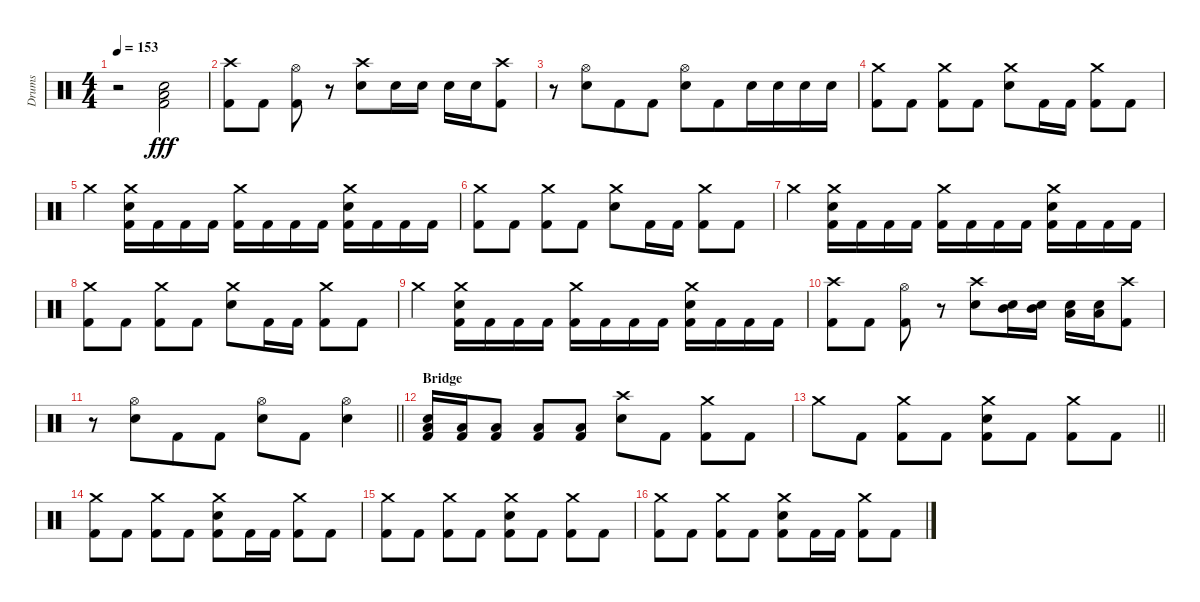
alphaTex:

\track ("Drums" "Drums") {instrument percussion}
\staff {score}
\articulation defaults
\ts (4 4)
\tempo 153
\clef neutral
\ks c
r.2{dy fff} ("Low Floor Tom (hit)" "Kick (hit) 2" "Snare (hit) 2").2 |
("Crash high (hit)" "Kick (hit) 2").8 "Kick (hit) 2".8 ("Hi-Hat (open)" "Kick (hit) 2").8 r.8{beam merge} ("Crash high (hit)" "Snare (hit) 2").8 "Snare (hit) 2".16 "Snare (hit) 2".16 "Snare (hit) 2".16{beam merge} "Snare (hit) 2".16 ("Crash high (hit)" "Kick (hit) 2").8 |
r.8 ("Hi-Hat (open)" "Snare (hit) 2").8{beam merge} "Kick (hit) 2".8{beam merge} "Kick (hit) 2".8 ("Hi-Hat (open)" "Snare (hit) 2").8{beam merge} "Kick (hit) 2".8{beam merge} "Snare (hit) 2".16 "Snare (hit) 2".16{beam merge} "Snare (hit) 2".16 "Snare (hit) 2".16 |
("Crash medium (hit)" "Kick (hit) 2").8 "Kick (hit) 2".8 ("Crash medium (hit)" "Kick (hit) 2").8 "Kick (hit) 2".8 ("Crash medium (hit)" "Snare (hit) 2").8 "Kick (hit) 2".16 "Kick (hit) 2".16 ("Crash medium (hit)" "Kick (hit) 2").8 "Kick (hit) 2".8 |
"Crash medium (hit)".4 ("Crash medium (hit)" "Snare (hit) 2" "Kick (hit) 2").16 "Kick (hit) 2".16 "Kick (hit) 2".16 "Kick (hit) 2".16 ("Crash medium (hit)" "Kick (hit) 2").16 "Kick (hit) 2".16 "Kick (hit) 2".16 "Kick (hit) 2".16 ("Crash medium (hit)" "Snare (hit) 2" "Kick (hit) 2").16 "Kick (hit) 2".16 "Kick (hit) 2".16 "Kick (hit) 2".16 |
("Crash medium (hit)" "Kick (hit) 2").8 "Kick (hit) 2".8 ("Crash medium (hit)" "Kick (hit) 2").8 "Kick (hit) 2".8 ("Crash medium (hit)" "Snare (hit) 2").8 "Kick (hit) 2".16 "Kick (hit) 2".16 ("Crash medium (hit)" "Kick (hit) 2").8 "Kick (hit) 2".8 |
"Crash medium (hit)".4 ("Crash medium (hit)" "Snare (hit) 2" "Kick (hit) 2").16 "Kick (hit) 2".16 "Kick (hit) 2".16 "Kick (hit) 2".16 ("Crash medium (hit)" "Kick (hit) 2").16 "Kick (hit) 2".16 "Kick (hit) 2".16 "Kick (hit) 2".16 ("Crash medium (hit)" "Snare (hit) 2" "Kick (hit) 2").16 "Kick (hit) 2".16 "Kick (hit) 2".16 "Kick (hit) 2".16 |
("Crash medium (hit)" "Kick (hit) 2").8 "Kick (hit) 2".8 ("Crash medium (hit)" "Kick (hit) 2").8 "Kick (hit) 2".8 ("Crash medium (hit)" "Snare (hit) 2").8 "Kick (hit) 2".16 "Kick (hit) 2".16 ("Crash medium (hit)" "Kick (hit) 2").8 "Kick (hit) 2".8 |
"Crash medium (hit)".4 ("Crash medium (hit)" "Snare (hit) 2" "Kick (hit) 2").16 "Kick (hit) 2".16 "Kick (hit) 2".16 "Kick (hit) 2".16 ("Crash medium (hit)" "Kick (hit) 2").16 "Kick (hit) 2".16 "Kick (hit) 2".16 "Kick (hit) 2".16 ("Crash medium (hit)" "Snare (hit) 2" "Kick (hit) 2").16 "Kick (hit) 2".16 "Kick (hit) 2".16 "Kick (hit) 2".16 |
("Crash high (hit)" "Kick (hit) 2").8 "Kick (hit) 2".8 ("Hi-Hat (open)" "Kick (hit) 2").8 r.8{beam merge} ("Crash high (hit)" "Snare (hit) 2").8 ("Snare (hit) 2" "Mid Tom (hit)").16 ("Snare (hit) 2" "Mid Tom (hit)").16 ("Snare (hit) 2" "Low Tom (hit)").16{beam merge} ("Snare (hit) 2" "Low Tom (hit)").16 ("Crash high (hit)" "Kick (hit) 2").8 |
\barLineRight lightlight
r.8 ("Hi-Hat (open)" "Snare (hit) 2").8{beam merge} "Kick (hit) 2".8{beam merge} "Kick (hit) 2".8 ("Hi-Hat (open)" "Snare (hit) 2").8{beam merge} "Kick (hit) 2".8 ("Hi-Hat (open)" "Snare (hit) 2").4 |
\section ("" "Bridge")
("Low Floor Tom (hit)" "Snare (hit) 2" "Kick (hit) 2").16 ("Low Floor Tom (hit)" "Kick (hit) 2").16 ("Low Floor Tom (hit)" "Kick (hit) 2").8 ("Low Floor Tom (hit)" "Kick (hit) 2").8 ("Low Floor Tom (hit)" "Kick (hit) 2").8 ("Crash high (hit)" "Snare (hit) 2").8 "Kick (hit) 2".8 ("Crash medium (hit)" "Kick (hit) 2").8 "Kick (hit) 2".8 |
\barLineRight lightlight "Crash medium (hit)".8 "Kick (hit) 2".8
("Crash medium (hit)" "Kick (hit) 2").8 "Kick (hit) 2".8 ("Crash medium (hit)" "Snare (hit) 2" "Kick (hit) 2").8 "Kick (hit) 2".8 ("Crash medium (hit)" "Kick (hit) 2").8 "Kick (hit) 2".8 |
("Crash medium (hit)" "Kick (hit) 2").8 "Kick (hit) 2".8 ("Crash medium (hit)" "Kick (hit) 2").8 "Kick (hit) 2".8 ("Crash medium (hit)" "Snare (hit) 2" "Kick (hit) 2").8 "Kick (hit) 2".16 "Kick (hit) 2".16 ("Crash medium (hit)" "Kick (hit) 2").8 "Kick (hit) 2".8 |
("Crash medium (hit)" "Kick (hit) 2").8 "Kick (hit) 2".8 ("Crash medium (hit)" "Kick (hit) 2").8 "Kick (hit) 2".8 ("Crash medium (hit)" "Snare (hit) 2" "Kick (hit) 2").8 "Kick (hit) 2".8 ("Crash medium (hit)" "Kick (hit) 2").8 "Kick (hit) 2".8 |
("Crash medium (hit)" "Kick (hit) 2").8 "Kick (hit) 2".8 ("Crash medium (hit)" "Kick (hit) 2").8 "Kick (hit) 2".8 ("Crash medium (hit)" "Snare (hit) 2" "Kick (hit) 2").8 "Kick (hit) 2".16 "Kick (hit) 2".16 ("Crash medium (hit)" "Kick (hit) 2").8 "Kick (hit) 2".8
